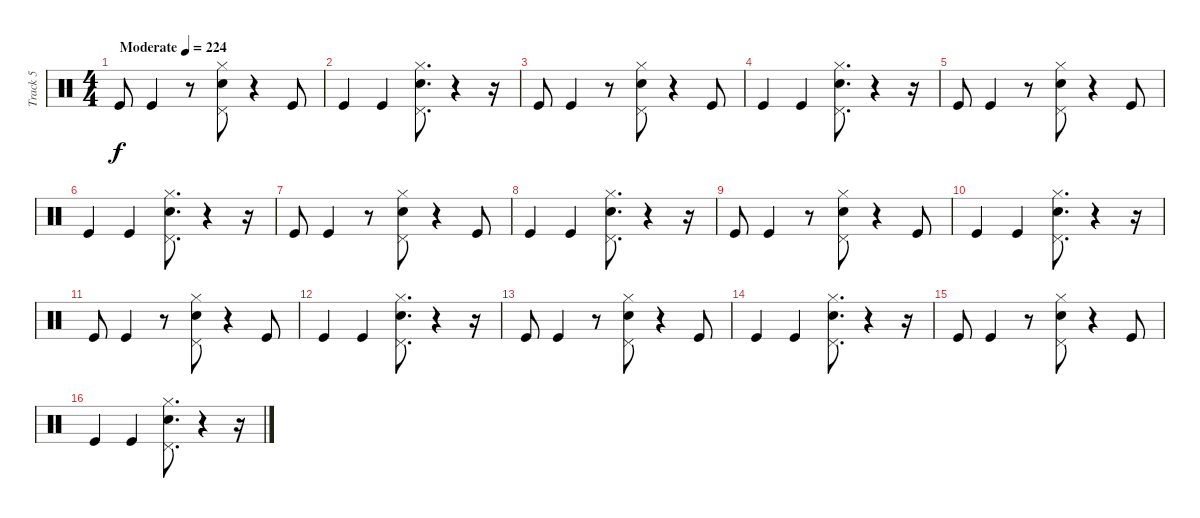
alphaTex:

\track ("Track 5" "Track 5") {instrument percussion}
\staff {score}
\articulation defaults
\ts (4 4)
\tempo (224 "Moderate")
\clef neutral
\ks c "Kick (hit)".8{dy f} "Kick (hit)".4
r.8 ("Hi-Hat (closed)" "Pedal Hi-Hat (hit)" "Electric Snare (hit)").8 r.4 "Kick (hit)".8 |
"Kick (hit)".4 "Kick (hit)".4 ("Hi-Hat (closed)" "Pedal Hi-Hat (hit)" "Electric Snare (hit)").8{d} r.4 r.16 |
"Kick (hit)".8 "Kick (hit)".4 r.8 ("Hi-Hat (closed)" "Pedal Hi-Hat (hit)" "Electric Snare (hit)").8 r.4 "Kick (hit)".8 |
"Kick (hit)".4 "Kick (hit)".4 ("Hi-Hat (closed)" "Pedal Hi-Hat (hit)" "Electric Snare (hit)").8{d} r.4 r.16 |
"Kick (hit)".8 "Kick (hit)".4 r.8 ("Hi-Hat (closed)" "Pedal Hi-Hat (hit)" "Electric Snare (hit)").8 r.4 "Kick (hit)".8 |
"Kick (hit)".4 "Kick (hit)".4 ("Hi-Hat (closed)" "Pedal Hi-Hat (hit)" "Electric Snare (hit)").8{d} r.4 r.16 |
"Kick (hit)".8 "Kick (hit)".4 r.8 ("Hi-Hat (closed)" "Pedal Hi-Hat (hit)" "Electric Snare (hit)").8 r.4 "Kick (hit)".8 |
"Kick (hit)".4 "Kick (hit)".4 ("Hi-Hat (closed)" "Pedal Hi-Hat (hit)" "Electric Snare (hit)").8{d} r.4 r.16 |
"Kick (hit)".8 "Kick (hit)".4 r.8 ("Hi-Hat (closed)" "Pedal Hi-Hat (hit)" "Electric Snare (hit)").8 r.4 "Kick (hit)".8 |
"Kick (hit)".4 "Kick (hit)".4 ("Hi-Hat (closed)" "Pedal Hi-Hat (hit)" "Electric Snare (hit)").8{d} r.4 r.16 |
"Kick (hit)".8 "Kick (hit)".4 r.8 ("Hi-Hat (closed)" "Pedal Hi-Hat (hit)" "Electric Snare (hit)").8 r.4 "Kick (hit)".8 |
"Kick (hit)".4 "Kick (hit)".4 ("Hi-Hat (closed)" "Pedal Hi-Hat (hit)" "Electric Snare (hit)").8{d} r.4 r.16 |
"Kick (hit)".8 "Kick (hit)".4 r.8 ("Hi-Hat (closed)" "Pedal Hi-Hat (hit)" "Electric Snare (hit)").8 r.4 "Kick (hit)".8 |
"Kick (hit)".4 "Kick (hit)".4 ("Hi-Hat (closed)" "Pedal Hi-Hat (hit)" "Electric Snare (hit)").8{d} r.4 r.16 |
"Kick (hit)".8 "Kick (hit)".4 r.8 ("Hi-Hat (closed)" "Pedal Hi-Hat (hit)" "Electric Snare (hit)").8 r.4 "Kick (hit)".8 |
"Kick (hit)".4 "Kick (hit)".4 ("Hi-Hat (closed)" "Pedal Hi-Hat (hit)" "Electric Snare (hit)").8{d} r.4 r.16
